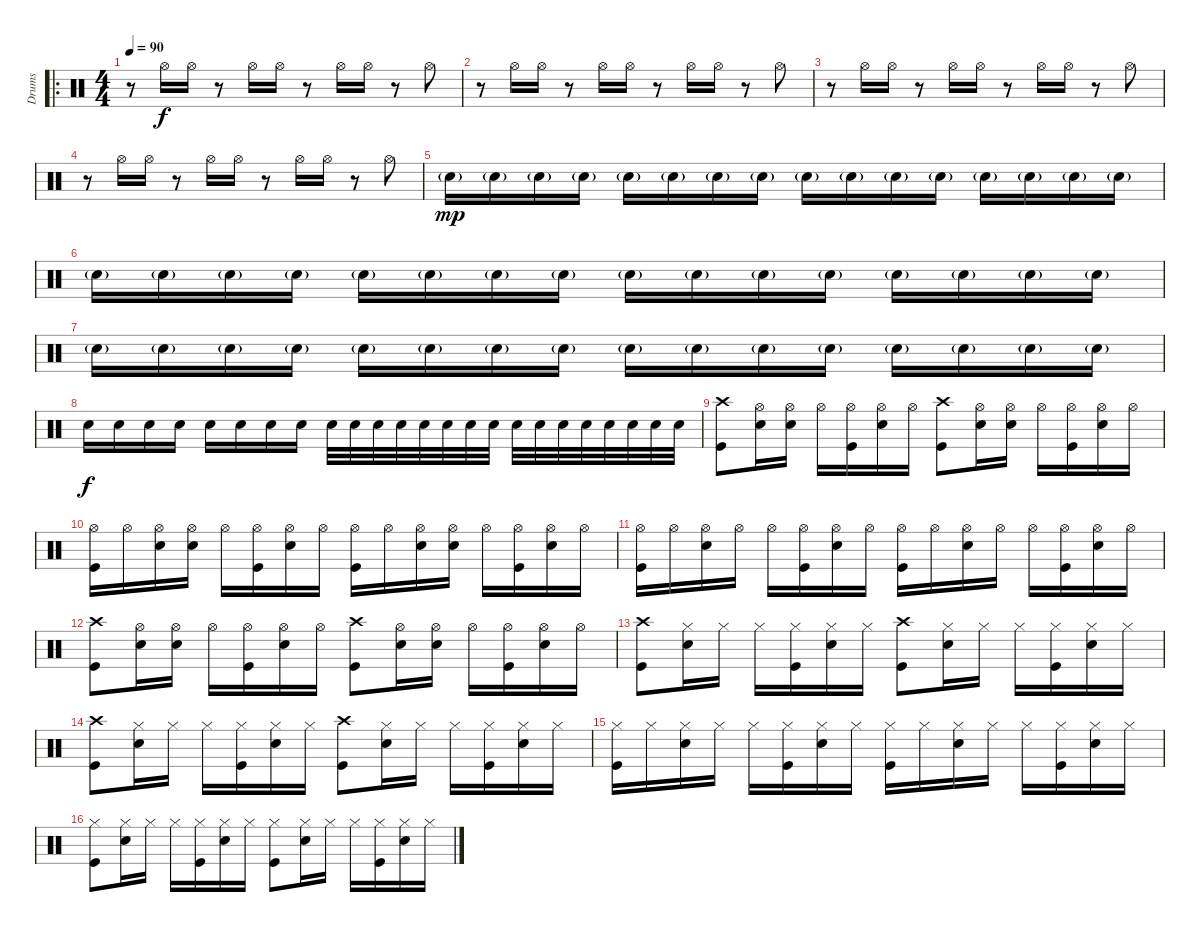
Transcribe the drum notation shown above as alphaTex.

\track ("Drums" "Drums") {instrument percussion}
\staff {score}
\articulation defaults
\ro
\ts (4 4)
\tempo 90
\clef neutral
\ks c
r.8{dy f} "Hi-Hat (open)".16 "Hi-Hat (open)".16 r.8 "Hi-Hat (open)".16 "Hi-Hat (open)".16 r.8 "Hi-Hat (open)".16 "Hi-Hat (open)".16 r.8 "Hi-Hat (open)".8 |
r.8 "Hi-Hat (open)".16 "Hi-Hat (open)".16 r.8 "Hi-Hat (open)".16 "Hi-Hat (open)".16 r.8 "Hi-Hat (open)".16 "Hi-Hat (open)".16 r.8 "Hi-Hat (open)".8 |
r.8 "Hi-Hat (open)".16 "Hi-Hat (open)".16 r.8 "Hi-Hat (open)".16 "Hi-Hat (open)".16 r.8 "Hi-Hat (open)".16 "Hi-Hat (open)".16 r.8 "Hi-Hat (open)".8 |
r.8 "Hi-Hat (open)".16 "Hi-Hat (open)".16 r.8 "Hi-Hat (open)".16 "Hi-Hat (open)".16 r.8 "Hi-Hat (open)".16 "Hi-Hat (open)".16 r.8 "Hi-Hat (open)".8 |
"Snare (hit) 2"{g}.16{dy mp} "Snare (hit) 2"{g}.16 "Snare (hit) 2"{g}.16 "Snare (hit) 2"{g}.16 "Snare (hit) 2"{g}.16 "Snare (hit) 2"{g}.16 "Snare (hit) 2"{g}.16 "Snare (hit) 2"{g}.16 "Snare (hit) 2"{g}.16 "Snare (hit) 2"{g}.16 "Snare (hit) 2"{g}.16 "Snare (hit) 2"{g}.16 "Snare (hit) 2"{g}.16 "Snare (hit) 2"{g}.16 "Snare (hit) 2"{g}.16 "Snare (hit) 2"{g}.16 |
"Snare (hit) 2"{g}.16 "Snare (hit) 2"{g}.16 "Snare (hit) 2"{g}.16 "Snare (hit) 2"{g}.16 "Snare (hit) 2"{g}.16 "Snare (hit) 2"{g}.16 "Snare (hit) 2"{g}.16 "Snare (hit) 2"{g}.16 "Snare (hit) 2"{g}.16 "Snare (hit) 2"{g}.16 "Snare (hit) 2"{g}.16 "Snare (hit) 2"{g}.16 "Snare (hit) 2"{g}.16 "Snare (hit) 2"{g}.16 "Snare (hit) 2"{g}.16 "Snare (hit) 2"{g}.16 |
"Snare (hit) 2"{g}.16 "Snare (hit) 2"{g}.16 "Snare (hit) 2"{g}.16 "Snare (hit) 2"{g}.16 "Snare (hit) 2"{g}.16 "Snare (hit) 2"{g}.16 "Snare (hit) 2"{g}.16 "Snare (hit) 2"{g}.16 "Snare (hit) 2"{g}.16 "Snare (hit) 2"{g}.16 "Snare (hit) 2"{g}.16 "Snare (hit) 2"{g}.16 "Snare (hit) 2"{g}.16 "Snare (hit) 2"{g}.16 "Snare (hit) 2"{g}.16 "Snare (hit) 2"{g}.16 |
"Snare (hit) 2".16{dy f} "Snare (hit) 2".16 "Snare (hit) 2".16 "Snare (hit) 2".16 "Snare (hit) 2".16 "Snare (hit) 2".16 "Snare (hit) 2".16 "Snare (hit) 2".16 "Snare (hit) 2".32 "Snare (hit) 2".32 "Snare (hit) 2".32 "Snare (hit) 2".32 "Snare (hit) 2".32 "Snare (hit) 2".32 "Snare (hit) 2".32 "Snare (hit) 2".32 "Snare (hit) 2".32 "Snare (hit) 2".32 "Snare (hit) 2".32 "Snare (hit) 2".32 "Snare (hit) 2".32 "Snare (hit) 2".32 "Snare (hit) 2".32 "Snare (hit) 2".32 |
("Crash high (hit)" "Kick (hit)").8 ("Hi-Hat (open)" "Snare (hit) 2").16 ("Hi-Hat (open)" "Snare (hit) 2").16 "Hi-Hat (open)".16 ("Hi-Hat (open)" "Kick (hit)").16 ("Hi-Hat (open)" "Snare (hit) 2").16 "Hi-Hat (open)".16 ("Crash high (hit)" "Kick (hit)").8 ("Hi-Hat (open)" "Snare (hit) 2").16 ("Hi-Hat (open)" "Snare (hit) 2").16 "Hi-Hat (open)".16 ("Hi-Hat (open)" "Kick (hit)").16 ("Hi-Hat (open)" "Snare (hit) 2").16 "Hi-Hat (open)".16 |
("Hi-Hat (open)" "Kick (hit)").16 "Hi-Hat (open)".16 ("Hi-Hat (open)" "Snare (hit) 2").16 ("Hi-Hat (open)" "Snare (hit) 2").16 "Hi-Hat (open)".16 ("Hi-Hat (open)" "Kick (hit)").16 ("Hi-Hat (open)" "Snare (hit) 2").16 "Hi-Hat (open)".16 ("Hi-Hat (open)" "Kick (hit)").16 "Hi-Hat (open)".16 ("Hi-Hat (open)" "Snare (hit) 2").16 ("Hi-Hat (open)" "Snare (hit) 2").16 "Hi-Hat (open)".16 ("Hi-Hat (open)" "Kick (hit)").16 ("Hi-Hat (open)" "Snare (hit) 2").16 "Hi-Hat (open)".16 |
("Hi-Hat (open)" "Kick (hit)").16 "Hi-Hat (open)".16 ("Hi-Hat (open)" "Snare (hit) 2").16 "Hi-Hat (open)".16 "Hi-Hat (open)".16 ("Hi-Hat (open)" "Kick (hit)").16 ("Hi-Hat (open)" "Snare (hit) 2").16 "Hi-Hat (open)".16 ("Hi-Hat (open)" "Kick (hit)").16 "Hi-Hat (open)".16 ("Hi-Hat (open)" "Snare (hit) 2").16 "Hi-Hat (open)".16 "Hi-Hat (open)".16 ("Hi-Hat (open)" "Kick (hit)").16 ("Hi-Hat (open)" "Snare (hit) 2").16 "Hi-Hat (open)".16 |
("Crash high (hit)" "Kick (hit)").8 ("Hi-Hat (open)" "Snare (hit) 2").16 ("Hi-Hat (open)" "Snare (hit) 2").16 "Hi-Hat (open)".16 ("Hi-Hat (open)" "Kick (hit)").16 ("Hi-Hat (open)" "Snare (hit) 2").16 "Hi-Hat (open)".16 ("Crash high (hit)" "Kick (hit)").8 ("Hi-Hat (open)" "Snare (hit) 2").16 ("Hi-Hat (open)" "Snare (hit) 2").16 "Hi-Hat (open)".16 ("Hi-Hat (open)" "Kick (hit)").16 ("Hi-Hat (open)" "Snare (hit) 2").16 "Hi-Hat (open)".16 |
("Crash high (hit)" "Kick (hit)").8 ("Hi-Hat (closed)" "Snare (hit) 2").16 "Hi-Hat (closed)".16 "Hi-Hat (closed)".16 ("Hi-Hat (closed)" "Kick (hit)").16 ("Hi-Hat (closed)" "Snare (hit) 2").16 "Hi-Hat (closed)".16 ("Crash high (hit)" "Kick (hit)").8 ("Hi-Hat (closed)" "Snare (hit) 2").16 "Hi-Hat (closed)".16 "Hi-Hat (closed)".16 ("Hi-Hat (closed)" "Kick (hit)").16 ("Hi-Hat (closed)" "Snare (hit) 2").16 "Hi-Hat (closed)".16 |
("Crash high (hit)" "Kick (hit)").8 ("Hi-Hat (closed)" "Snare (hit) 2").16 "Hi-Hat (closed)".16 "Hi-Hat (closed)".16 ("Hi-Hat (closed)" "Kick (hit)").16 ("Hi-Hat (closed)" "Snare (hit) 2").16 "Hi-Hat (closed)".16 ("Crash high (hit)" "Kick (hit)").8 ("Hi-Hat (closed)" "Snare (hit) 2").16 "Hi-Hat (closed)".16 "Hi-Hat (closed)".16 ("Hi-Hat (closed)" "Kick (hit)").16 ("Hi-Hat (closed)" "Snare (hit) 2").16 "Hi-Hat (closed)".16 |
("Hi-Hat (closed)" "Kick (hit)").16 "Hi-Hat (closed)".16 ("Hi-Hat (closed)" "Snare (hit) 2").16 "Hi-Hat (closed)".16 "Hi-Hat (closed)".16 ("Hi-Hat (closed)" "Kick (hit)").16 ("Hi-Hat (closed)" "Snare (hit) 2").16 "Hi-Hat (closed)".16 ("Hi-Hat (closed)" "Kick (hit)").16 "Hi-Hat (closed)".16 ("Hi-Hat (closed)" "Snare (hit) 2").16 "Hi-Hat (closed)".16 "Hi-Hat (closed)".16 ("Hi-Hat (closed)" "Kick (hit)").16 ("Hi-Hat (closed)" "Snare (hit) 2").16 "Hi-Hat (closed)".16 |
("Hi-Hat (closed)" "Kick (hit)").8 ("Hi-Hat (closed)" "Snare (hit) 2").16 "Hi-Hat (closed)".16 "Hi-Hat (closed)".16 ("Hi-Hat (closed)" "Kick (hit)").16 ("Hi-Hat (closed)" "Snare (hit) 2").16 "Hi-Hat (closed)".16 ("Hi-Hat (closed)" "Kick (hit)").8 ("Hi-Hat (closed)" "Snare (hit) 2").16 "Hi-Hat (closed)".16 "Hi-Hat (closed)".16 ("Hi-Hat (closed)" "Kick (hit)").16 ("Hi-Hat (closed)" "Snare (hit) 2").16 "Hi-Hat (closed)".16
